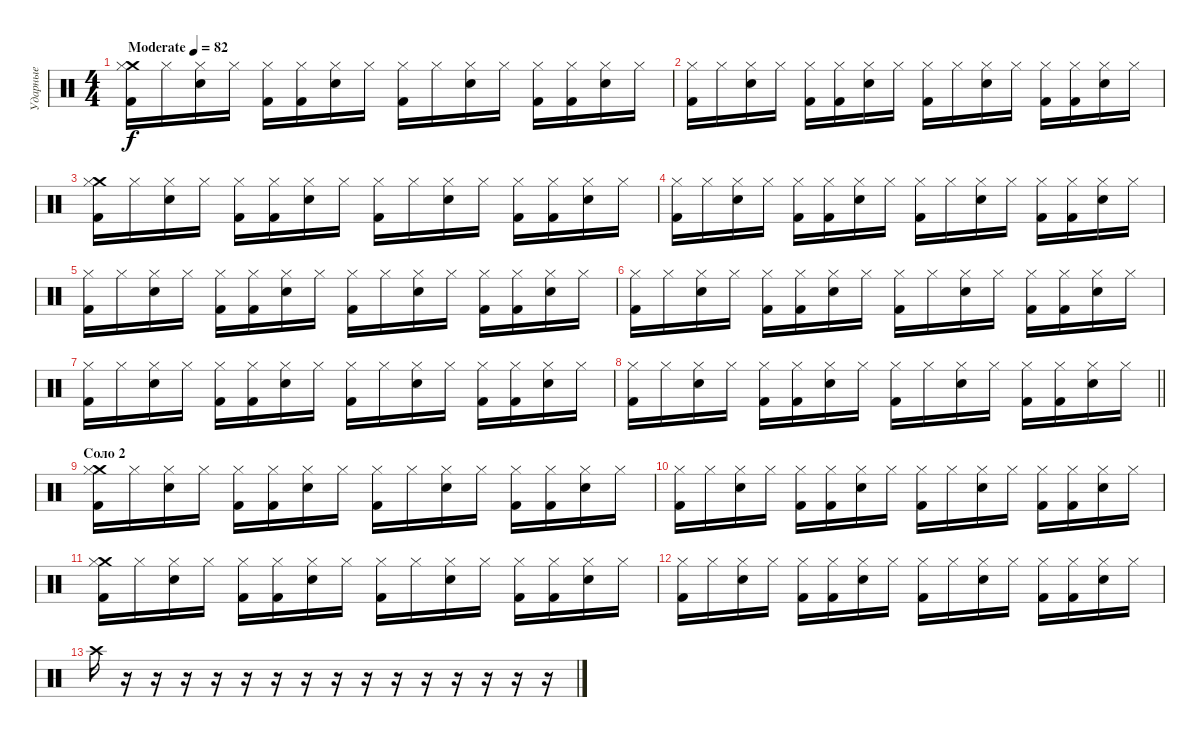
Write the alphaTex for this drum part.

\track ("Ударные" "Ударные") {instrument percussion}
\staff {score}
\articulation defaults
\ts (4 4)
\tempo (82 "Moderate")
\clef neutral
\ks c
("Crash medium (hit)" "Hi-Hat (closed)" "Kick (hit) 2").16{dy f} "Hi-Hat (closed)".16 ("Hi-Hat (closed)" "Snare (hit) 2").16 "Hi-Hat (closed)".16 ("Hi-Hat (closed)" "Kick (hit) 2").16 ("Hi-Hat (closed)" "Kick (hit) 2").16 ("Hi-Hat (closed)" "Snare (hit) 2").16 "Hi-Hat (closed)".16 ("Hi-Hat (closed)" "Kick (hit) 2").16 "Hi-Hat (closed)".16 ("Hi-Hat (closed)" "Snare (hit) 2").16 "Hi-Hat (closed)".16 ("Hi-Hat (closed)" "Kick (hit) 2").16 ("Hi-Hat (closed)" "Kick (hit) 2").16 ("Hi-Hat (closed)" "Snare (hit) 2").16 "Hi-Hat (closed)".16 |
("Hi-Hat (closed)" "Kick (hit) 2").16 "Hi-Hat (closed)".16 ("Hi-Hat (closed)" "Snare (hit) 2").16 "Hi-Hat (closed)".16 ("Hi-Hat (closed)" "Kick (hit) 2").16 ("Hi-Hat (closed)" "Kick (hit) 2").16 ("Hi-Hat (closed)" "Snare (hit) 2").16 "Hi-Hat (closed)".16 ("Hi-Hat (closed)" "Kick (hit) 2").16 "Hi-Hat (closed)".16 ("Hi-Hat (closed)" "Snare (hit) 2").16 "Hi-Hat (closed)".16 ("Hi-Hat (closed)" "Kick (hit) 2").16 ("Hi-Hat (closed)" "Kick (hit) 2").16 ("Hi-Hat (closed)" "Snare (hit) 2").16 "Hi-Hat (closed)".16 |
("Crash medium (hit)" "Hi-Hat (closed)" "Kick (hit) 2").16 "Hi-Hat (closed)".16 ("Hi-Hat (closed)" "Snare (hit) 2").16 "Hi-Hat (closed)".16 ("Hi-Hat (closed)" "Kick (hit) 2").16 ("Hi-Hat (closed)" "Kick (hit) 2").16 ("Hi-Hat (closed)" "Snare (hit) 2").16 "Hi-Hat (closed)".16 ("Hi-Hat (closed)" "Kick (hit) 2").16 "Hi-Hat (closed)".16 ("Hi-Hat (closed)" "Snare (hit) 2").16 "Hi-Hat (closed)".16 ("Hi-Hat (closed)" "Kick (hit) 2").16 ("Hi-Hat (closed)" "Kick (hit) 2").16 ("Hi-Hat (closed)" "Snare (hit) 2").16 "Hi-Hat (closed)".16 |
("Hi-Hat (closed)" "Kick (hit) 2").16 "Hi-Hat (closed)".16 ("Hi-Hat (closed)" "Snare (hit) 2").16 "Hi-Hat (closed)".16 ("Hi-Hat (closed)" "Kick (hit) 2").16 ("Hi-Hat (closed)" "Kick (hit) 2").16 ("Hi-Hat (closed)" "Snare (hit) 2").16 "Hi-Hat (closed)".16 ("Hi-Hat (closed)" "Kick (hit) 2").16 "Hi-Hat (closed)".16 ("Hi-Hat (closed)" "Snare (hit) 2").16 "Hi-Hat (closed)".16 ("Hi-Hat (closed)" "Kick (hit) 2").16 ("Hi-Hat (closed)" "Kick (hit) 2").16 ("Hi-Hat (closed)" "Snare (hit) 2").16 "Hi-Hat (closed)".16 |
("Hi-Hat (closed)" "Kick (hit) 2").16 "Hi-Hat (closed)".16 ("Hi-Hat (closed)" "Snare (hit) 2").16 "Hi-Hat (closed)".16 ("Hi-Hat (closed)" "Kick (hit) 2").16 ("Hi-Hat (closed)" "Kick (hit) 2").16 ("Hi-Hat (closed)" "Snare (hit) 2").16 "Hi-Hat (closed)".16 ("Hi-Hat (closed)" "Kick (hit) 2").16 "Hi-Hat (closed)".16 ("Hi-Hat (closed)" "Snare (hit) 2").16 "Hi-Hat (closed)".16 ("Hi-Hat (closed)" "Kick (hit) 2").16 ("Hi-Hat (closed)" "Kick (hit) 2").16 ("Hi-Hat (closed)" "Snare (hit) 2").16 "Hi-Hat (closed)".16 |
("Hi-Hat (closed)" "Kick (hit) 2").16 "Hi-Hat (closed)".16 ("Hi-Hat (closed)" "Snare (hit) 2").16 "Hi-Hat (closed)".16 ("Hi-Hat (closed)" "Kick (hit) 2").16 ("Hi-Hat (closed)" "Kick (hit) 2").16 ("Hi-Hat (closed)" "Snare (hit) 2").16 "Hi-Hat (closed)".16 ("Hi-Hat (closed)" "Kick (hit) 2").16 "Hi-Hat (closed)".16 ("Hi-Hat (closed)" "Snare (hit) 2").16 "Hi-Hat (closed)".16 ("Hi-Hat (closed)" "Kick (hit) 2").16 ("Hi-Hat (closed)" "Kick (hit) 2").16 ("Hi-Hat (closed)" "Snare (hit) 2").16 "Hi-Hat (closed)".16 |
("Hi-Hat (closed)" "Kick (hit) 2").16 "Hi-Hat (closed)".16 ("Hi-Hat (closed)" "Snare (hit) 2").16 "Hi-Hat (closed)".16 ("Hi-Hat (closed)" "Kick (hit) 2").16 ("Hi-Hat (closed)" "Kick (hit) 2").16 ("Hi-Hat (closed)" "Snare (hit) 2").16 "Hi-Hat (closed)".16 ("Hi-Hat (closed)" "Kick (hit) 2").16 "Hi-Hat (closed)".16 ("Hi-Hat (closed)" "Snare (hit) 2").16 "Hi-Hat (closed)".16 ("Hi-Hat (closed)" "Kick (hit) 2").16 ("Hi-Hat (closed)" "Kick (hit) 2").16 ("Hi-Hat (closed)" "Snare (hit) 2").16 "Hi-Hat (closed)".16 |
\barLineRight lightlight
("Hi-Hat (closed)" "Kick (hit) 2").16 "Hi-Hat (closed)".16 ("Hi-Hat (closed)" "Snare (hit) 2").16 "Hi-Hat (closed)".16 ("Hi-Hat (closed)" "Kick (hit) 2").16 ("Hi-Hat (closed)" "Kick (hit) 2").16 ("Hi-Hat (closed)" "Snare (hit) 2").16 "Hi-Hat (closed)".16 ("Hi-Hat (closed)" "Kick (hit) 2").16 "Hi-Hat (closed)".16 ("Hi-Hat (closed)" "Snare (hit) 2").16 "Hi-Hat (closed)".16 ("Hi-Hat (closed)" "Kick (hit) 2").16 ("Hi-Hat (closed)" "Kick (hit) 2").16 ("Hi-Hat (closed)" "Snare (hit) 2").16 "Hi-Hat (closed)".16 |
\section ("" "Соло 2")
("Crash medium (hit)" "Hi-Hat (closed)" "Kick (hit) 2").16 "Hi-Hat (closed)".16 ("Hi-Hat (closed)" "Snare (hit) 2").16 "Hi-Hat (closed)".16 ("Hi-Hat (closed)" "Kick (hit) 2").16 ("Hi-Hat (closed)" "Kick (hit) 2").16 ("Hi-Hat (closed)" "Snare (hit) 2").16 "Hi-Hat (closed)".16 ("Hi-Hat (closed)" "Kick (hit) 2").16 "Hi-Hat (closed)".16 ("Hi-Hat (closed)" "Snare (hit) 2").16 "Hi-Hat (closed)".16 ("Hi-Hat (closed)" "Kick (hit) 2").16 ("Hi-Hat (closed)" "Kick (hit) 2").16 ("Hi-Hat (closed)" "Snare (hit) 2").16 "Hi-Hat (closed)".16 |
("Hi-Hat (closed)" "Kick (hit) 2").16 "Hi-Hat (closed)".16 ("Hi-Hat (closed)" "Snare (hit) 2").16 "Hi-Hat (closed)".16 ("Hi-Hat (closed)" "Kick (hit) 2").16 ("Hi-Hat (closed)" "Kick (hit) 2").16 ("Hi-Hat (closed)" "Snare (hit) 2").16 "Hi-Hat (closed)".16 ("Hi-Hat (closed)" "Kick (hit) 2").16 "Hi-Hat (closed)".16 ("Hi-Hat (closed)" "Snare (hit) 2").16 "Hi-Hat (closed)".16 ("Hi-Hat (closed)" "Kick (hit) 2").16 ("Hi-Hat (closed)" "Kick (hit) 2").16 ("Hi-Hat (closed)" "Snare (hit) 2").16 "Hi-Hat (closed)".16 |
("Crash medium (hit)" "Hi-Hat (closed)" "Kick (hit) 2").16 "Hi-Hat (closed)".16 ("Hi-Hat (closed)" "Snare (hit) 2").16 "Hi-Hat (closed)".16 ("Hi-Hat (closed)" "Kick (hit) 2").16 ("Hi-Hat (closed)" "Kick (hit) 2").16 ("Hi-Hat (closed)" "Snare (hit) 2").16 "Hi-Hat (closed)".16 ("Hi-Hat (closed)" "Kick (hit) 2").16 "Hi-Hat (closed)".16 ("Hi-Hat (closed)" "Snare (hit) 2").16 "Hi-Hat (closed)".16 ("Hi-Hat (closed)" "Kick (hit) 2").16 ("Hi-Hat (closed)" "Kick (hit) 2").16 ("Hi-Hat (closed)" "Snare (hit) 2").16 "Hi-Hat (closed)".16 |
("Hi-Hat (closed)" "Kick (hit) 2").16 "Hi-Hat (closed)".16 ("Hi-Hat (closed)" "Snare (hit) 2").16 "Hi-Hat (closed)".16 ("Hi-Hat (closed)" "Kick (hit) 2").16 ("Hi-Hat (closed)" "Kick (hit) 2").16 ("Hi-Hat (closed)" "Snare (hit) 2").16 "Hi-Hat (closed)".16 ("Hi-Hat (closed)" "Kick (hit) 2").16 "Hi-Hat (closed)".16 ("Hi-Hat (closed)" "Snare (hit) 2").16 "Hi-Hat (closed)".16 ("Hi-Hat (closed)" "Kick (hit) 2").16 ("Hi-Hat (closed)" "Kick (hit) 2").16 ("Hi-Hat (closed)" "Snare (hit) 2").16 "Hi-Hat (closed)".16 |
"Crash high (hit)".16 r.16 r.16 r.16 r.16 r.16 r.16 r.16 r.16 r.16 r.16 r.16 r.16 r.16 r.16 r.16
